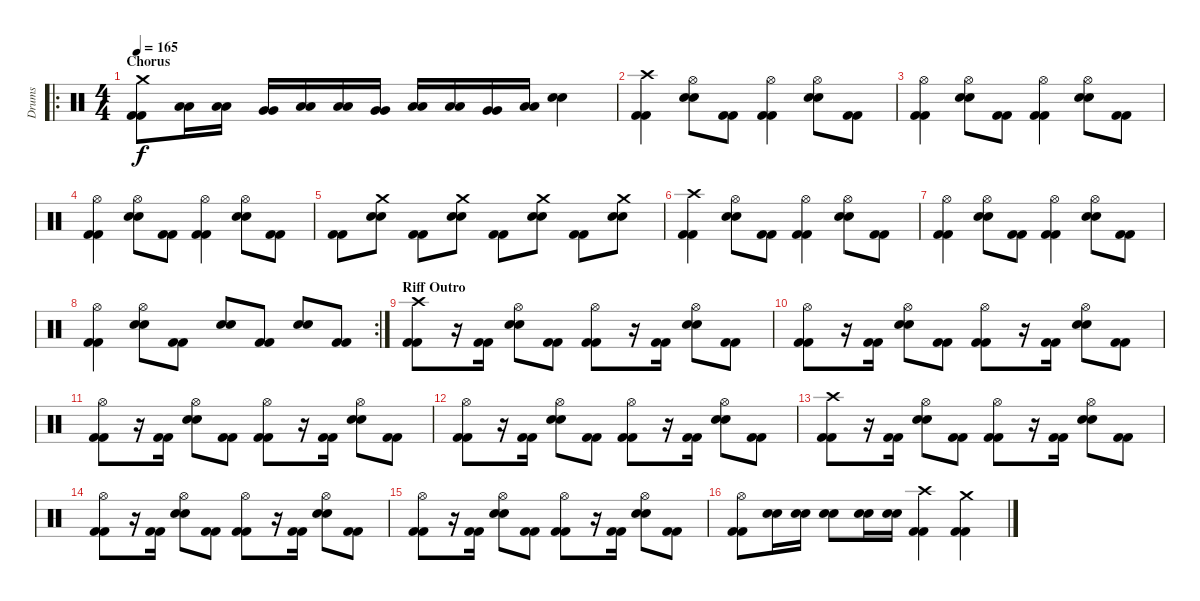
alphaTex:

\track ("Drums" "Drums") {instrument percussion}
\staff {score}
\articulation defaults
\ro
\ts (4 4)
\section ("" "Chorus")
\tempo 165
\clef neutral
\ks c
("Crash medium (hit)" "Kick (hit) 2" "Kick (hit) 2").8{dy f} ("Low Tom (hit)" "Low Tom (hit)").16 ("Low Tom (hit)" "Low Tom (hit)").16 ("Very Low Tom (hit)" "Very Low Tom (hit)").16 ("Low Tom (hit)" "Low Tom (hit)").16 ("Low Tom (hit)" "Low Tom (hit)").16 ("Very Low Tom (hit)" "Very Low Tom (hit)").16 ("Low Tom (hit)" "Low Tom (hit)").16 ("Low Tom (hit)" "Low Tom (hit)").16 ("Very Low Tom (hit)" "Very Low Tom (hit)").16 ("Low Tom (hit)" "Low Tom (hit)").16 ("Snare (hit) 2" "Snare (hit) 2").4 |
("Crash high (hit)" "Kick (hit) 2" "Kick (hit) 2").4 ("Hi-Hat (open)" "Snare (hit) 2" "Snare (hit) 2").8 ("Kick (hit) 2" "Kick (hit) 2").8 ("Hi-Hat (open)" "Kick (hit) 2" "Kick (hit) 2").4 ("Hi-Hat (open)" "Snare (hit) 2" "Snare (hit) 2").8 ("Kick (hit) 2" "Kick (hit) 2").8 |
("Hi-Hat (open)" "Kick (hit) 2" "Kick (hit) 2").4 ("Hi-Hat (open)" "Snare (hit) 2" "Snare (hit) 2").8 ("Kick (hit) 2" "Kick (hit) 2").8 ("Hi-Hat (open)" "Kick (hit) 2" "Kick (hit) 2").4 ("Hi-Hat (open)" "Snare (hit) 2" "Snare (hit) 2").8 ("Kick (hit) 2" "Kick (hit) 2").8 |
("Hi-Hat (open)" "Kick (hit) 2" "Kick (hit) 2").4 ("Hi-Hat (open)" "Snare (hit) 2" "Snare (hit) 2").8 ("Kick (hit) 2" "Kick (hit) 2").8 ("Hi-Hat (open)" "Kick (hit) 2" "Kick (hit) 2").4 ("Hi-Hat (open)" "Snare (hit) 2" "Snare (hit) 2").8 ("Kick (hit) 2" "Kick (hit) 2").8 |
("Kick (hit) 2" "Kick (hit) 2").8 ("Crash medium (hit)" "Snare (hit) 2" "Snare (hit) 2").8 ("Kick (hit) 2" "Kick (hit) 2").8 ("Crash medium (hit)" "Snare (hit) 2" "Snare (hit) 2").8 ("Kick (hit) 2" "Kick (hit) 2").8 ("Crash medium (hit)" "Snare (hit) 2" "Snare (hit) 2").8 ("Kick (hit) 2" "Kick (hit) 2").8 ("Crash medium (hit)" "Snare (hit) 2" "Snare (hit) 2").8 |
("Crash high (hit)" "Kick (hit) 2" "Kick (hit) 2").4 ("Hi-Hat (open)" "Snare (hit) 2" "Snare (hit) 2").8 ("Kick (hit) 2" "Kick (hit) 2").8 ("Hi-Hat (open)" "Kick (hit) 2" "Kick (hit) 2").4 ("Hi-Hat (open)" "Snare (hit) 2" "Snare (hit) 2").8 ("Kick (hit) 2" "Kick (hit) 2").8 |
("Hi-Hat (open)" "Kick (hit) 2" "Kick (hit) 2").4 ("Hi-Hat (open)" "Snare (hit) 2" "Snare (hit) 2").8 ("Kick (hit) 2" "Kick (hit) 2").8 ("Hi-Hat (open)" "Kick (hit) 2" "Kick (hit) 2").4 ("Hi-Hat (open)" "Snare (hit) 2" "Snare (hit) 2").8 ("Kick (hit) 2" "Kick (hit) 2").8 |
\rc 2
("Hi-Hat (open)" "Kick (hit) 2" "Kick (hit) 2").4 ("Hi-Hat (open)" "Snare (hit) 2" "Snare (hit) 2").8 ("Kick (hit) 2" "Kick (hit) 2").8 ("Snare (hit) 2" "Snare (hit) 2").8 ("Kick (hit) 2" "Kick (hit) 2").8 ("Snare (hit) 2" "Snare (hit) 2").8 ("Kick (hit) 2" "Kick (hit) 2").8 |
\section ("" "Riff Outro")
("Crash high (hit)" "Kick (hit) 2" "Kick (hit) 2").8 r.16 ("Kick (hit) 2" "Kick (hit) 2").16 ("Hi-Hat (open)" "Snare (hit) 2" "Snare (hit) 2").8 ("Kick (hit) 2" "Kick (hit) 2").8 ("Hi-Hat (open)" "Kick (hit) 2" "Kick (hit) 2").8 r.16 ("Kick (hit) 2" "Kick (hit) 2").16 ("Hi-Hat (open)" "Snare (hit) 2" "Snare (hit) 2").8 ("Kick (hit) 2" "Kick (hit) 2").8 |
("Hi-Hat (open)" "Kick (hit) 2" "Kick (hit) 2").8 r.16 ("Kick (hit) 2" "Kick (hit) 2").16 ("Hi-Hat (open)" "Snare (hit) 2" "Snare (hit) 2").8 ("Kick (hit) 2" "Kick (hit) 2").8 ("Hi-Hat (open)" "Kick (hit) 2" "Kick (hit) 2").8 r.16 ("Kick (hit) 2" "Kick (hit) 2").16 ("Hi-Hat (open)" "Snare (hit) 2" "Snare (hit) 2").8 ("Kick (hit) 2" "Kick (hit) 2").8 |
("Hi-Hat (open)" "Kick (hit) 2" "Kick (hit) 2").8 r.16 ("Kick (hit) 2" "Kick (hit) 2").16 ("Hi-Hat (open)" "Snare (hit) 2" "Snare (hit) 2").8 ("Kick (hit) 2" "Kick (hit) 2").8 ("Hi-Hat (open)" "Kick (hit) 2" "Kick (hit) 2").8 r.16 ("Kick (hit) 2" "Kick (hit) 2").16 ("Hi-Hat (open)" "Snare (hit) 2" "Snare (hit) 2").8 ("Kick (hit) 2" "Kick (hit) 2").8 |
("Hi-Hat (open)" "Kick (hit) 2" "Kick (hit) 2").8 r.16 ("Kick (hit) 2" "Kick (hit) 2").16 ("Hi-Hat (open)" "Snare (hit) 2" "Snare (hit) 2").8 ("Kick (hit) 2" "Kick (hit) 2").8 ("Hi-Hat (open)" "Kick (hit) 2" "Kick (hit) 2").8 r.16 ("Kick (hit) 2" "Kick (hit) 2").16 ("Hi-Hat (open)" "Snare (hit) 2" "Snare (hit) 2").8 ("Kick (hit) 2" "Kick (hit) 2").8 |
("Crash high (hit)" "Kick (hit) 2" "Kick (hit) 2").8 r.16 ("Kick (hit) 2" "Kick (hit) 2").16 ("Hi-Hat (open)" "Snare (hit) 2" "Snare (hit) 2").8 ("Kick (hit) 2" "Kick (hit) 2").8 ("Hi-Hat (open)" "Kick (hit) 2" "Kick (hit) 2").8 r.16 ("Kick (hit) 2" "Kick (hit) 2").16 ("Hi-Hat (open)" "Snare (hit) 2" "Snare (hit) 2").8 ("Kick (hit) 2" "Kick (hit) 2").8 |
("Hi-Hat (open)" "Kick (hit) 2" "Kick (hit) 2").8 r.16 ("Kick (hit) 2" "Kick (hit) 2").16 ("Hi-Hat (open)" "Snare (hit) 2" "Snare (hit) 2").8 ("Kick (hit) 2" "Kick (hit) 2").8 ("Hi-Hat (open)" "Kick (hit) 2" "Kick (hit) 2").8 r.16 ("Kick (hit) 2" "Kick (hit) 2").16 ("Hi-Hat (open)" "Snare (hit) 2" "Snare (hit) 2").8 ("Kick (hit) 2" "Kick (hit) 2").8 |
("Hi-Hat (open)" "Kick (hit) 2" "Kick (hit) 2").8 r.16 ("Kick (hit) 2" "Kick (hit) 2").16 ("Hi-Hat (open)" "Snare (hit) 2" "Snare (hit) 2").8 ("Kick (hit) 2" "Kick (hit) 2").8 ("Hi-Hat (open)" "Kick (hit) 2" "Kick (hit) 2").8 r.16 ("Kick (hit) 2" "Kick (hit) 2").16 ("Hi-Hat (open)" "Snare (hit) 2" "Snare (hit) 2").8 ("Kick (hit) 2" "Kick (hit) 2").8 |
("Hi-Hat (open)" "Kick (hit) 2" "Kick (hit) 2").8 ("Snare (hit) 2" "Snare (hit) 2").16 ("Snare (hit) 2" "Snare (hit) 2").16 ("Snare (hit) 2" "Snare (hit) 2").8 ("Snare (hit) 2" "Snare (hit) 2").16 ("Snare (hit) 2" "Snare (hit) 2").16 ("Crash high (hit)" "Kick (hit) 2" "Kick (hit) 2").4 ("Crash medium (hit)" "Kick (hit) 2" "Kick (hit) 2").4
